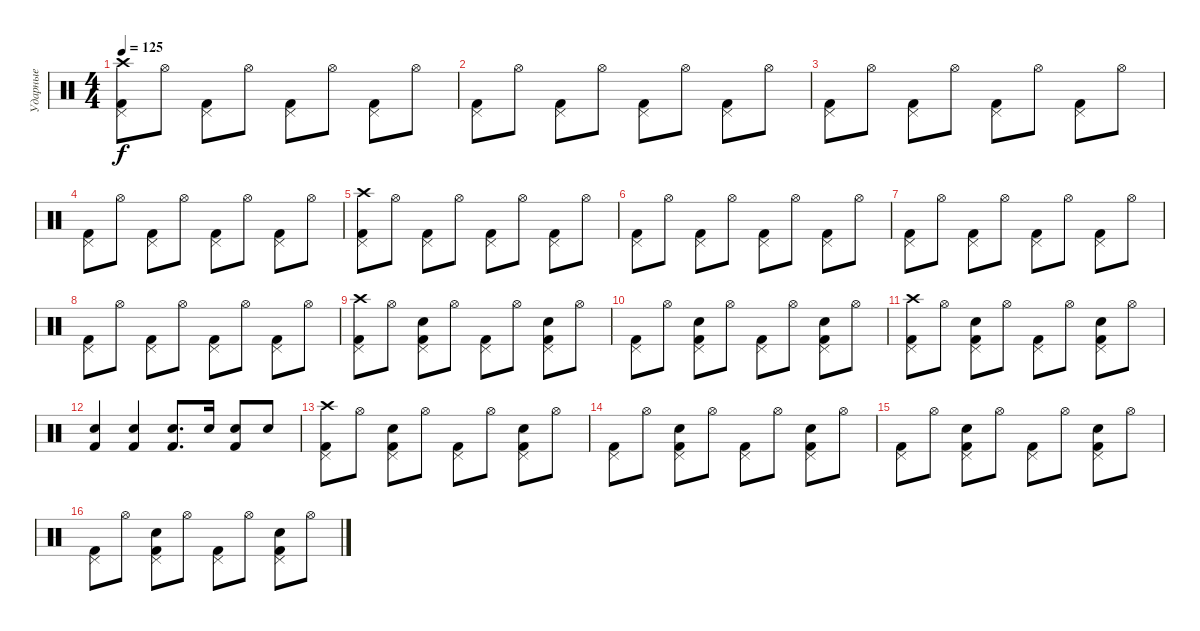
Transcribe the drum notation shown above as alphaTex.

\track ("Ударные" "Ударные") {instrument percussion}
\staff {score}
\articulation defaults
\ts (4 4)
\tempo 125
\clef neutral
\ks c
("Kick (hit) 2" "Pedal Hi-Hat (hit)" "Crash high (hit)").8{dy f} "Hi-Hat (open)".8 ("Kick (hit) 2" "Pedal Hi-Hat (hit)").8 "Hi-Hat (open)".8 ("Kick (hit) 2" "Pedal Hi-Hat (hit)").8 "Hi-Hat (open)".8 ("Kick (hit) 2" "Pedal Hi-Hat (hit)").8 "Hi-Hat (open)".8 |
("Kick (hit) 2" "Pedal Hi-Hat (hit)").8 "Hi-Hat (open)".8 ("Kick (hit) 2" "Pedal Hi-Hat (hit)").8 "Hi-Hat (open)".8 ("Kick (hit) 2" "Pedal Hi-Hat (hit)").8 "Hi-Hat (open)".8 ("Kick (hit) 2" "Pedal Hi-Hat (hit)").8 "Hi-Hat (open)".8 |
("Kick (hit) 2" "Pedal Hi-Hat (hit)").8 "Hi-Hat (open)".8 ("Kick (hit) 2" "Pedal Hi-Hat (hit)").8 "Hi-Hat (open)".8 ("Kick (hit) 2" "Pedal Hi-Hat (hit)").8 "Hi-Hat (open)".8 ("Kick (hit) 2" "Pedal Hi-Hat (hit)").8 "Hi-Hat (open)".8 |
("Kick (hit) 2" "Pedal Hi-Hat (hit)").8 "Hi-Hat (open)".8 ("Kick (hit) 2" "Pedal Hi-Hat (hit)").8 "Hi-Hat (open)".8 ("Kick (hit) 2" "Pedal Hi-Hat (hit)").8 "Hi-Hat (open)".8 ("Kick (hit) 2" "Pedal Hi-Hat (hit)").8 "Hi-Hat (open)".8 |
("Kick (hit) 2" "Pedal Hi-Hat (hit)" "Crash high (hit)").8 "Hi-Hat (open)".8 ("Kick (hit) 2" "Pedal Hi-Hat (hit)").8 "Hi-Hat (open)".8 ("Kick (hit) 2" "Pedal Hi-Hat (hit)").8 "Hi-Hat (open)".8 ("Kick (hit) 2" "Pedal Hi-Hat (hit)").8 "Hi-Hat (open)".8 |
("Kick (hit) 2" "Pedal Hi-Hat (hit)").8 "Hi-Hat (open)".8 ("Kick (hit) 2" "Pedal Hi-Hat (hit)").8 "Hi-Hat (open)".8 ("Kick (hit) 2" "Pedal Hi-Hat (hit)").8 "Hi-Hat (open)".8 ("Kick (hit) 2" "Pedal Hi-Hat (hit)").8 "Hi-Hat (open)".8 |
("Kick (hit) 2" "Pedal Hi-Hat (hit)").8 "Hi-Hat (open)".8 ("Kick (hit) 2" "Pedal Hi-Hat (hit)").8 "Hi-Hat (open)".8 ("Kick (hit) 2" "Pedal Hi-Hat (hit)").8 "Hi-Hat (open)".8 ("Kick (hit) 2" "Pedal Hi-Hat (hit)").8 "Hi-Hat (open)".8 |
("Kick (hit) 2" "Pedal Hi-Hat (hit)").8 "Hi-Hat (open)".8 ("Kick (hit) 2" "Pedal Hi-Hat (hit)").8 "Hi-Hat (open)".8 ("Kick (hit) 2" "Pedal Hi-Hat (hit)").8 "Hi-Hat (open)".8 ("Kick (hit) 2" "Pedal Hi-Hat (hit)").8 "Hi-Hat (open)".8 |
("Kick (hit) 2" "Pedal Hi-Hat (hit)" "Crash high (hit)").8 "Hi-Hat (open)".8 ("Kick (hit) 2" "Pedal Hi-Hat (hit)" "Hand Clap (hit)").8 "Hi-Hat (open)".8 ("Kick (hit) 2" "Pedal Hi-Hat (hit)").8 "Hi-Hat (open)".8 ("Kick (hit) 2" "Pedal Hi-Hat (hit)" "Hand Clap (hit)").8 "Hi-Hat (open)".8 |
("Kick (hit) 2" "Pedal Hi-Hat (hit)").8 "Hi-Hat (open)".8 ("Kick (hit) 2" "Pedal Hi-Hat (hit)" "Hand Clap (hit)").8 "Hi-Hat (open)".8 ("Kick (hit) 2" "Pedal Hi-Hat (hit)").8 "Hi-Hat (open)".8 ("Kick (hit) 2" "Pedal Hi-Hat (hit)" "Hand Clap (hit)").8 "Hi-Hat (open)".8 |
("Kick (hit) 2" "Pedal Hi-Hat (hit)" "Crash high (hit)").8 "Hi-Hat (open)".8 ("Kick (hit) 2" "Pedal Hi-Hat (hit)" "Hand Clap (hit)").8 "Hi-Hat (open)".8 ("Kick (hit) 2" "Pedal Hi-Hat (hit)").8 "Hi-Hat (open)".8 ("Kick (hit) 2" "Pedal Hi-Hat (hit)" "Hand Clap (hit)").8 "Hi-Hat (open)".8 |
("Kick (hit) 2" "Snare (hit) 2").4 ("Kick (hit) 2" "Snare (hit) 2").4 ("Kick (hit) 2" "Snare (hit) 2").8{d} "Snare (hit) 2".16 ("Kick (hit) 2" "Snare (hit) 2").8 "Snare (hit) 2".8 |
("Kick (hit) 2" "Pedal Hi-Hat (hit)" "Crash high (hit)").8 "Hi-Hat (open)".8 ("Kick (hit) 2" "Pedal Hi-Hat (hit)" "Hand Clap (hit)").8 "Hi-Hat (open)".8 ("Kick (hit) 2" "Pedal Hi-Hat (hit)").8 "Hi-Hat (open)".8 ("Kick (hit) 2" "Pedal Hi-Hat (hit)" "Hand Clap (hit)").8 "Hi-Hat (open)".8 |
("Kick (hit) 2" "Pedal Hi-Hat (hit)").8 "Hi-Hat (open)".8 ("Kick (hit) 2" "Pedal Hi-Hat (hit)" "Hand Clap (hit)").8 "Hi-Hat (open)".8 ("Kick (hit) 2" "Pedal Hi-Hat (hit)").8 "Hi-Hat (open)".8 ("Kick (hit) 2" "Pedal Hi-Hat (hit)" "Hand Clap (hit)").8 "Hi-Hat (open)".8 |
("Kick (hit) 2" "Pedal Hi-Hat (hit)").8 "Hi-Hat (open)".8 ("Kick (hit) 2" "Pedal Hi-Hat (hit)" "Hand Clap (hit)").8 "Hi-Hat (open)".8 ("Kick (hit) 2" "Pedal Hi-Hat (hit)").8 "Hi-Hat (open)".8 ("Kick (hit) 2" "Pedal Hi-Hat (hit)" "Hand Clap (hit)").8 "Hi-Hat (open)".8 |
("Kick (hit) 2" "Pedal Hi-Hat (hit)").8 "Hi-Hat (open)".8 ("Kick (hit) 2" "Pedal Hi-Hat (hit)" "Hand Clap (hit)").8 "Hi-Hat (open)".8 ("Kick (hit) 2" "Pedal Hi-Hat (hit)").8 "Hi-Hat (open)".8 ("Kick (hit) 2" "Pedal Hi-Hat (hit)" "Hand Clap (hit)").8 "Hi-Hat (open)".8
